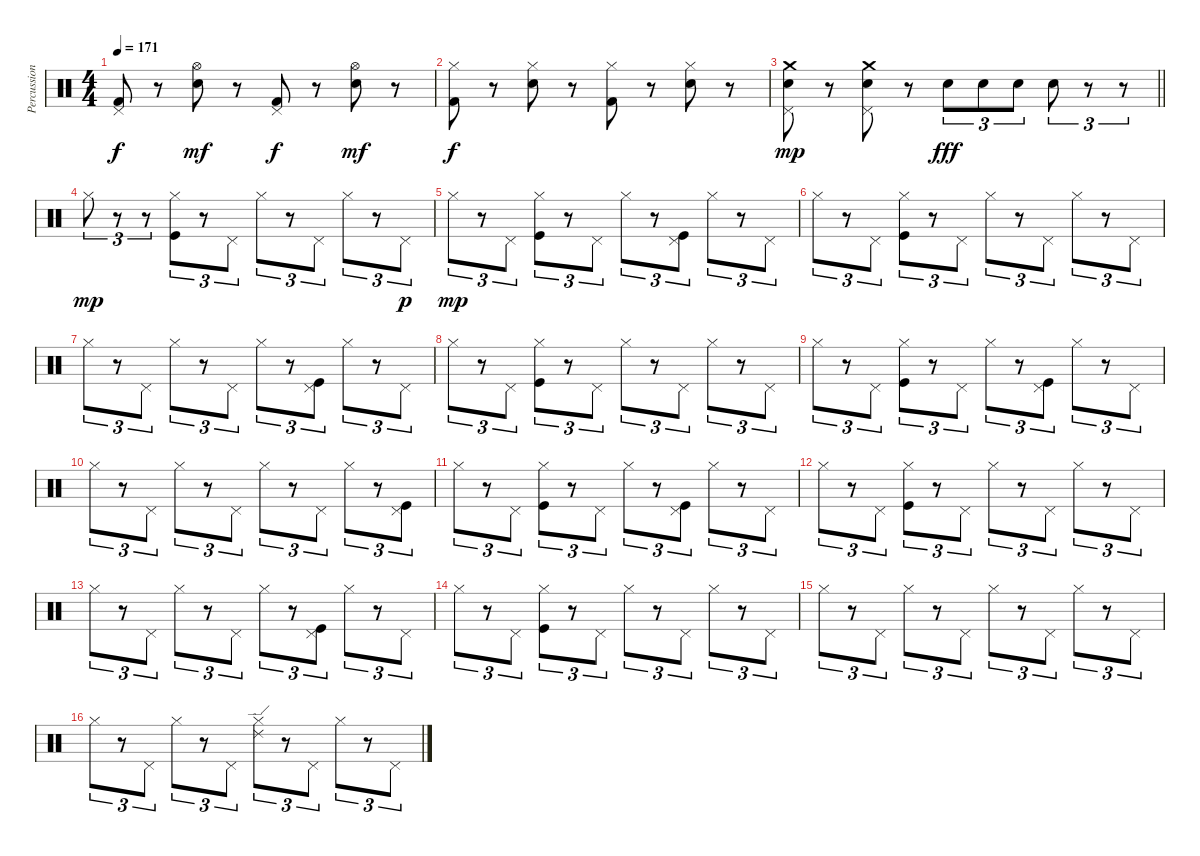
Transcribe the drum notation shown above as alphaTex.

\track ("Percussions" "Percussion") {instrument percussion}
\staff {score}
\articulation defaults
\ts (4 4)
\tempo 171
\clef neutral
\ks c
("Kick (hit) 2" "Pedal Hi-Hat (hit)").8{dy f} r.8 ("Electric Snare (hit)" "Hi-Hat (open)").8{dy mf} r.8 ("Kick (hit) 2" "Pedal Hi-Hat (hit)").8{dy f} r.8 ("Electric Snare (hit)" "Hi-Hat (open)").8{dy mf} r.8 |
("Kick (hit) 2" "Hi-Hat (closed)").8{dy f} r.8 ("Electric Snare (hit)" "Hi-Hat (closed)").8 r.8 ("Kick (hit) 2" "Hi-Hat (closed)").8 r.8 ("Electric Snare (hit)" "Hi-Hat (closed)").8 r.8 |
\barLineRight lightlight
("Electric Snare (hit)" "Pedal Hi-Hat (hit)" "Crash medium (hit)").8{dy mp} r.8 ("Electric Snare (hit)" "Pedal Hi-Hat (hit)" "Crash medium (hit)").8 r.8 "Electric Snare (hit)".8{tu (3 2) dy fff} "Electric Snare (hit)".8{tu (3 2)} "Electric Snare (hit)".8{tu (3 2)} "Electric Snare (hit)".8{tu (3 2)} r.8{tu (3 2)} r.8{tu (3 2)} |
\section ("" "")
"Hi-Hat (closed)".8{tu (3 2) dy mp} r.8{tu (3 2)} r.8{tu (3 2)} ("Kick (hit)" "Hi-Hat (closed)").8{tu (3 2)} r.8{tu (3 2)} "Pedal Hi-Hat (hit)".8{tu (3 2)} "Hi-Hat (closed)".8{tu (3 2)} r.8{tu (3 2)} "Pedal Hi-Hat (hit)".8{tu (3 2)} "Hi-Hat (closed)".8{tu (3 2)} r.8{tu (3 2)} "Pedal Hi-Hat (hit)".8{tu (3 2) dy p} |
"Hi-Hat (closed)".8{tu (3 2) dy mp} r.8{tu (3 2)} "Pedal Hi-Hat (hit)".8{tu (3 2)} ("Kick (hit)" "Hi-Hat (closed)").8{tu (3 2)} r.8{tu (3 2)} "Pedal Hi-Hat (hit)".8{tu (3 2)} "Hi-Hat (closed)".8{tu (3 2)} r.8{tu (3 2)} ("Kick (hit)" "Pedal Hi-Hat (hit)").8{tu (3 2)} "Hi-Hat (closed)".8{tu (3 2)} r.8{tu (3 2)} "Pedal Hi-Hat (hit)".8{tu (3 2)} |
"Hi-Hat (closed)".8{tu (3 2)} r.8{tu (3 2)} "Pedal Hi-Hat (hit)".8{tu (3 2)} ("Kick (hit)" "Hi-Hat (closed)").8{tu (3 2)} r.8{tu (3 2)} "Pedal Hi-Hat (hit)".8{tu (3 2)} "Hi-Hat (closed)".8{tu (3 2)} r.8{tu (3 2)} "Pedal Hi-Hat (hit)".8{tu (3 2)} "Hi-Hat (closed)".8{tu (3 2)} r.8{tu (3 2)} "Pedal Hi-Hat (hit)".8{tu (3 2)} |
"Hi-Hat (closed)".8{tu (3 2)} r.8{tu (3 2)} "Pedal Hi-Hat (hit)".8{tu (3 2)} "Hi-Hat (closed)".8{tu (3 2)} r.8{tu (3 2)} "Pedal Hi-Hat (hit)".8{tu (3 2)} "Hi-Hat (closed)".8{tu (3 2)} r.8{tu (3 2)} ("Kick (hit)" "Pedal Hi-Hat (hit)").8{tu (3 2)} "Hi-Hat (closed)".8{tu (3 2)} r.8{tu (3 2)} "Pedal Hi-Hat (hit)".8{tu (3 2)} |
"Hi-Hat (closed)".8{tu (3 2)} r.8{tu (3 2)} "Pedal Hi-Hat (hit)".8{tu (3 2)} ("Kick (hit)" "Hi-Hat (closed)").8{tu (3 2)} r.8{tu (3 2)} "Pedal Hi-Hat (hit)".8{tu (3 2)} "Hi-Hat (closed)".8{tu (3 2)} r.8{tu (3 2)} "Pedal Hi-Hat (hit)".8{tu (3 2)} "Hi-Hat (closed)".8{tu (3 2)} r.8{tu (3 2)} "Pedal Hi-Hat (hit)".8{tu (3 2)} |
"Hi-Hat (closed)".8{tu (3 2)} r.8{tu (3 2)} "Pedal Hi-Hat (hit)".8{tu (3 2)} ("Kick (hit)" "Hi-Hat (closed)").8{tu (3 2)} r.8{tu (3 2)} "Pedal Hi-Hat (hit)".8{tu (3 2)} "Hi-Hat (closed)".8{tu (3 2)} r.8{tu (3 2)} ("Kick (hit)" "Pedal Hi-Hat (hit)").8{tu (3 2)} "Hi-Hat (closed)".8{tu (3 2)} r.8{tu (3 2)} "Pedal Hi-Hat (hit)".8{tu (3 2)} |
"Hi-Hat (closed)".8{tu (3 2)} r.8{tu (3 2)} "Pedal Hi-Hat (hit)".8{tu (3 2)} "Hi-Hat (closed)".8{tu (3 2)} r.8{tu (3 2)} "Pedal Hi-Hat (hit)".8{tu (3 2)} "Hi-Hat (closed)".8{tu (3 2)} r.8{tu (3 2)} "Pedal Hi-Hat (hit)".8{tu (3 2)} "Hi-Hat (closed)".8{tu (3 2)} r.8{tu (3 2)} ("Kick (hit)" "Pedal Hi-Hat (hit)").8{tu (3 2)} |
"Hi-Hat (closed)".8{tu (3 2)} r.8{tu (3 2)} "Pedal Hi-Hat (hit)".8{tu (3 2)} ("Kick (hit)" "Hi-Hat (closed)").8{tu (3 2)} r.8{tu (3 2)} "Pedal Hi-Hat (hit)".8{tu (3 2)} "Hi-Hat (closed)".8{tu (3 2)} r.8{tu (3 2)} ("Kick (hit)" "Pedal Hi-Hat (hit)").8{tu (3 2)} "Hi-Hat (closed)".8{tu (3 2)} r.8{tu (3 2)} "Pedal Hi-Hat (hit)".8{tu (3 2)} |
"Hi-Hat (closed)".8{tu (3 2)} r.8{tu (3 2)} "Pedal Hi-Hat (hit)".8{tu (3 2)} ("Kick (hit)" "Hi-Hat (closed)").8{tu (3 2)} r.8{tu (3 2)} "Pedal Hi-Hat (hit)".8{tu (3 2)} "Hi-Hat (closed)".8{tu (3 2)} r.8{tu (3 2)} "Pedal Hi-Hat (hit)".8{tu (3 2)} "Hi-Hat (closed)".8{tu (3 2)} r.8{tu (3 2)} "Pedal Hi-Hat (hit)".8{tu (3 2)} |
"Hi-Hat (closed)".8{tu (3 2)} r.8{tu (3 2)} "Pedal Hi-Hat (hit)".8{tu (3 2)} "Hi-Hat (closed)".8{tu (3 2)} r.8{tu (3 2)} "Pedal Hi-Hat (hit)".8{tu (3 2)} "Hi-Hat (closed)".8{tu (3 2)} r.8{tu (3 2)} ("Kick (hit)" "Pedal Hi-Hat (hit)").8{tu (3 2)} "Hi-Hat (closed)".8{tu (3 2)} r.8{tu (3 2)} "Pedal Hi-Hat (hit)".8{tu (3 2)} |
"Hi-Hat (closed)".8{tu (3 2)} r.8{tu (3 2)} "Pedal Hi-Hat (hit)".8{tu (3 2)} ("Kick (hit)" "Hi-Hat (closed)").8{tu (3 2)} r.8{tu (3 2)} "Pedal Hi-Hat (hit)".8{tu (3 2)} "Hi-Hat (closed)".8{tu (3 2)} r.8{tu (3 2)} "Pedal Hi-Hat (hit)".8{tu (3 2)} "Hi-Hat (closed)".8{tu (3 2)} r.8{tu (3 2)} "Pedal Hi-Hat (hit)".8{tu (3 2)} |
"Hi-Hat (closed)".8{tu (3 2)} r.8{tu (3 2)} "Pedal Hi-Hat (hit)".8{tu (3 2)} "Hi-Hat (closed)".8{tu (3 2)} r.8{tu (3 2)} "Pedal Hi-Hat (hit)".8{tu (3 2)} "Hi-Hat (closed)".8{tu (3 2)} r.8{tu (3 2)} "Pedal Hi-Hat (hit)".8{tu (3 2)} "Hi-Hat (closed)".8{tu (3 2)} r.8{tu (3 2)} "Pedal Hi-Hat (hit)".8{tu (3 2)} |
"Hi-Hat (closed)".8{tu (3 2)} r.8{tu (3 2)} "Pedal Hi-Hat (hit)".8{tu (3 2)} "Hi-Hat (closed)".8{tu (3 2)} r.8{tu (3 2)} "Pedal Hi-Hat (hit)".8{tu (3 2)} ("Hi-Hat (closed)" "Ride (edge) 2").8{tu (3 2)} r.8{tu (3 2)} "Pedal Hi-Hat (hit)".8{tu (3 2)} "Hi-Hat (closed)".8{tu (3 2)} r.8{tu (3 2)} "Pedal Hi-Hat (hit)".8{tu (3 2)}
